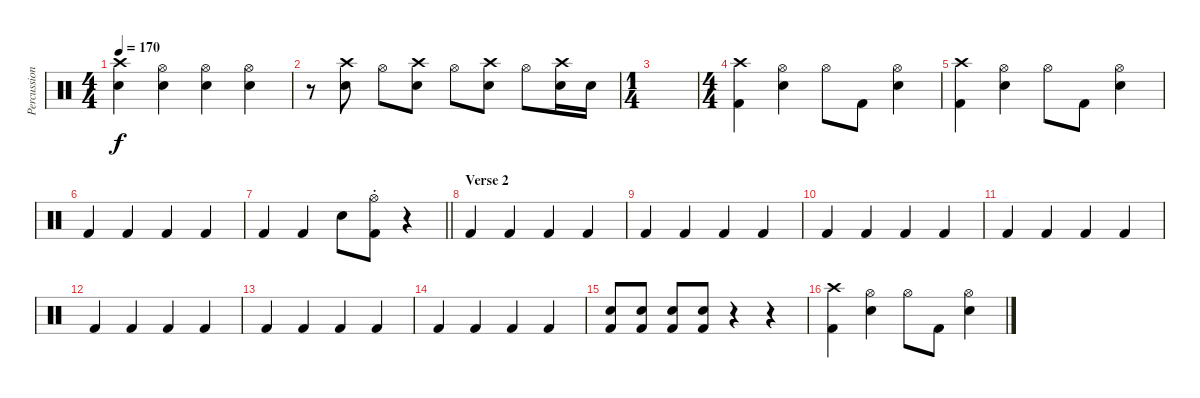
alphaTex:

\track ("Percussion" "Percussion") {instrument percussion}
\staff {score}
\articulation defaults
\ts (4 4)
\tempo 170
\clef neutral
\ks c
("Crash high (hit)" "Snare (hit) 2").4{dy f} ("Hi-Hat (open)" "Snare (hit) 2").4 ("Hi-Hat (open)" "Snare (hit) 2").4 ("Hi-Hat (open)" "Snare (hit) 2").4 |
r.8 ("Crash high (hit)" "Snare (hit) 2").8 "Hi-Hat (open)".8 ("Crash high (hit)" "Snare (hit) 2").8 "Hi-Hat (open)".8 ("Crash high (hit)" "Snare (hit) 2").8 "Hi-Hat (open)".8 ("Crash high (hit)" "Snare (hit) 2").16 "Snare (hit) 2".16 |
\ts (1 4)
|
\ts (4 4)
("Crash high (hit)" "Kick (hit) 2").4 ("Hi-Hat (open)" "Snare (hit) 2").4 "Hi-Hat (open)".8 "Kick (hit) 2".8 ("Hi-Hat (open)" "Snare (hit) 2").4 |
("Crash high (hit)" "Kick (hit) 2").4 ("Hi-Hat (open)" "Snare (hit) 2").4 "Hi-Hat (open)".8 "Kick (hit) 2".8 ("Hi-Hat (open)" "Snare (hit) 2").4 |
"Kick (hit) 2".4 "Kick (hit) 2".4 "Kick (hit) 2".4 "Kick (hit) 2".4 |
\barLineRight lightlight "Kick (hit) 2".4 "Kick (hit) 2".4 "Snare (hit) 2".8
("Hi-Hat (open)"{st} "Kick (hit) 2").8 r.4 |
\section ("" "Verse 2")
"Kick (hit) 2".4 "Kick (hit) 2".4 "Kick (hit) 2".4 "Kick (hit) 2".4 |
"Kick (hit) 2".4 "Kick (hit) 2".4 "Kick (hit) 2".4 "Kick (hit) 2".4 |
"Kick (hit) 2".4 "Kick (hit) 2".4 "Kick (hit) 2".4 "Kick (hit) 2".4 |
"Kick (hit) 2".4 "Kick (hit) 2".4 "Kick (hit) 2".4 "Kick (hit) 2".4 |
"Kick (hit) 2".4 "Kick (hit) 2".4 "Kick (hit) 2".4 "Kick (hit) 2".4 |
"Kick (hit) 2".4 "Kick (hit) 2".4 "Kick (hit) 2".4 "Kick (hit) 2".4 |
"Kick (hit) 2".4 "Kick (hit) 2".4 "Kick (hit) 2".4 "Kick (hit) 2".4 |
("Snare (hit) 2" "Kick (hit) 2").8 ("Snare (hit) 2" "Kick (hit) 2").8 ("Snare (hit) 2" "Kick (hit) 2").8 ("Snare (hit) 2" "Kick (hit) 2").8 r.4 r.4 |
("Crash high (hit)" "Kick (hit) 2").4 ("Hi-Hat (open)" "Snare (hit) 2").4 "Hi-Hat (open)".8 "Kick (hit) 2".8 ("Hi-Hat (open)" "Snare (hit) 2").4
